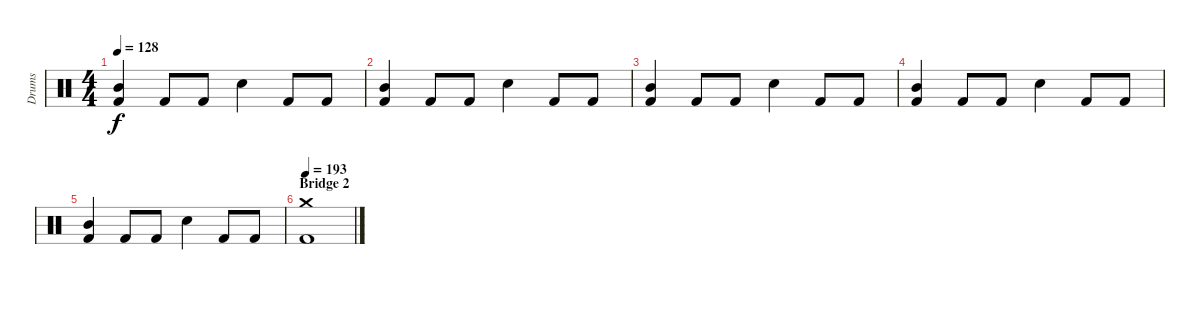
\track ("Drums" "Drums") {instrument percussion}
\staff {score}
\articulation defaults
\ts (4 4)
\tempo 128
\clef neutral
\ks c
("Mid Tom (hit)" "Kick (hit) 2").4{dy f} "Kick (hit) 2".8 "Kick (hit) 2".8 "Snare (hit) 2".4 "Kick (hit) 2".8 "Kick (hit) 2".8 |
("Mid Tom (hit)" "Kick (hit) 2").4 "Kick (hit) 2".8 "Kick (hit) 2".8 "Snare (hit) 2".4 "Kick (hit) 2".8 "Kick (hit) 2".8 |
("Mid Tom (hit)" "Kick (hit) 2").4 "Kick (hit) 2".8 "Kick (hit) 2".8 "Snare (hit) 2".4 "Kick (hit) 2".8 "Kick (hit) 2".8 |
("Mid Tom (hit)" "Kick (hit) 2").4 "Kick (hit) 2".8 "Kick (hit) 2".8 "Snare (hit) 2".4 "Kick (hit) 2".8 "Kick (hit) 2".8 |
("Mid Tom (hit)" "Kick (hit) 2").4 "Kick (hit) 2".8 "Kick (hit) 2".8 "Snare (hit) 2".4 "Kick (hit) 2".8 "Kick (hit) 2".8 |
\section ("" "Bridge 2")
\tempo 193
("Crash medium (hit)" "Kick (hit) 2").1
